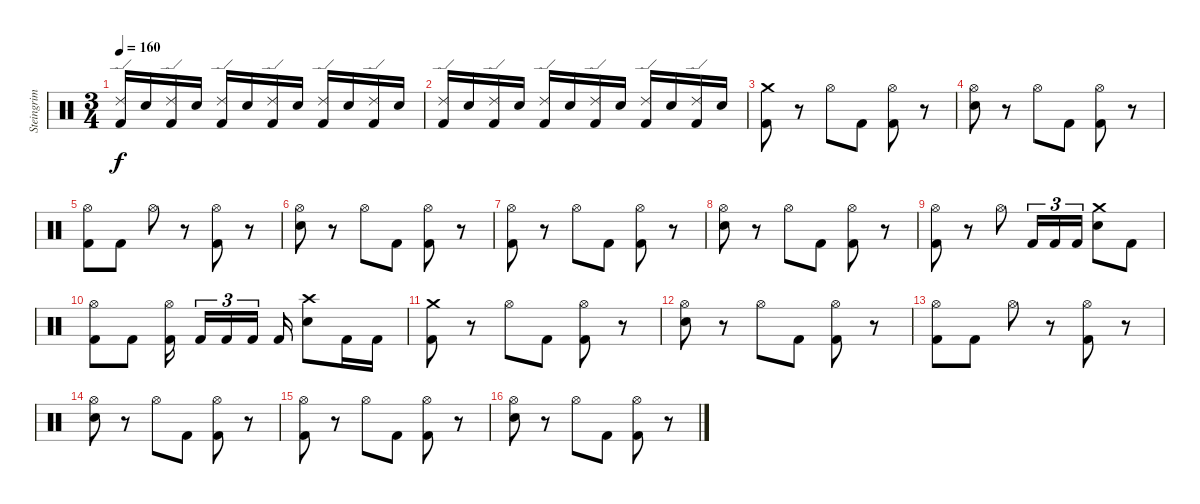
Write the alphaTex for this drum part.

\track ("Steingrim Trommur" "Steingrim ") {instrument percussion}
\staff {score}
\articulation defaults
\ts (3 4)
\tempo 160
\clef neutral
\ks c
("Ride (edge) 2" "Kick (hit) 2").16{dy f} "Electric Snare (hit)".16 ("Ride (edge) 2" "Kick (hit) 2").16 "Electric Snare (hit)".16 ("Ride (edge) 2" "Kick (hit) 2").16 "Electric Snare (hit)".16 ("Ride (edge) 2" "Kick (hit) 2").16 "Electric Snare (hit)".16 ("Ride (edge) 2" "Kick (hit) 2").16 "Electric Snare (hit)".16 ("Ride (edge) 2" "Kick (hit) 2").16 "Electric Snare (hit)".16 |
("Ride (edge) 2" "Kick (hit) 2").16 "Electric Snare (hit)".16 ("Ride (edge) 2" "Kick (hit) 2").16 "Electric Snare (hit)".16 ("Ride (edge) 2" "Kick (hit) 2").16 "Electric Snare (hit)".16 ("Ride (edge) 2" "Kick (hit) 2").16 "Electric Snare (hit)".16 ("Ride (edge) 2" "Kick (hit) 2").16 "Electric Snare (hit)".16 ("Ride (edge) 2" "Kick (hit) 2").16 "Electric Snare (hit)".16 |
("Crash medium (hit)" "Kick (hit) 2").8 r.8 "Hi-Hat (open)".8 "Kick (hit) 2".8 ("Hi-Hat (open)" "Kick (hit) 2").8 r.8 |
("Hi-Hat (open)" "Electric Snare (hit)").8 r.8 "Hi-Hat (open)".8 "Kick (hit) 2".8 ("Hi-Hat (open)" "Kick (hit) 2").8 r.8 |
("Hi-Hat (open)" "Kick (hit) 2").8 "Kick (hit) 2".8 "Hi-Hat (open)".8 r.8 ("Hi-Hat (open)" "Kick (hit) 2").8 r.8 |
("Hi-Hat (open)" "Electric Snare (hit)").8 r.8 "Hi-Hat (open)".8 "Kick (hit) 2".8 ("Hi-Hat (open)" "Kick (hit) 2").8 r.8 |
("Hi-Hat (open)" "Kick (hit) 2").8 r.8 "Hi-Hat (open)".8 "Kick (hit) 2".8 ("Hi-Hat (open)" "Kick (hit) 2").8 r.8 |
("Hi-Hat (open)" "Electric Snare (hit)").8 r.8 "Hi-Hat (open)".8 "Kick (hit) 2".8 ("Hi-Hat (open)" "Kick (hit) 2").8 r.8 |
("Hi-Hat (open)" "Kick (hit) 2").8 r.8 "Hi-Hat (open)".8 "Kick (hit) 2".16{tu (3 2)} "Kick (hit) 2".16{tu (3 2)} "Kick (hit) 2".16{tu (3 2)} ("Crash medium (hit)" "Electric Snare (hit)").8 "Kick (hit) 2".8 |
("Hi-Hat (open)" "Kick (hit) 2").8 "Kick (hit) 2".8 ("Hi-Hat (open)" "Kick (hit) 2").16 "Kick (hit) 2".16{tu (3 2)} "Kick (hit) 2".16{tu (3 2)} "Kick (hit) 2".16{tu (3 2)} "Kick (hit) 2".16 ("Crash high (hit)" "Electric Snare (hit)").8 "Kick (hit) 2".16 "Kick (hit) 2".16 |
("Crash medium (hit)" "Kick (hit) 2").8 r.8 "Hi-Hat (open)".8 "Kick (hit) 2".8 ("Hi-Hat (open)" "Kick (hit) 2").8 r.8 |
("Hi-Hat (open)" "Electric Snare (hit)").8 r.8 "Hi-Hat (open)".8 "Kick (hit) 2".8 ("Hi-Hat (open)" "Kick (hit) 2").8 r.8 |
("Hi-Hat (open)" "Kick (hit) 2").8 "Kick (hit) 2".8 "Hi-Hat (open)".8 r.8 ("Hi-Hat (open)" "Kick (hit) 2").8 r.8 |
("Hi-Hat (open)" "Electric Snare (hit)").8 r.8 "Hi-Hat (open)".8 "Kick (hit) 2".8 ("Hi-Hat (open)" "Kick (hit) 2").8 r.8 |
("Hi-Hat (open)" "Kick (hit) 2").8 r.8 "Hi-Hat (open)".8 "Kick (hit) 2".8 ("Hi-Hat (open)" "Kick (hit) 2").8 r.8 |
("Hi-Hat (open)" "Electric Snare (hit)").8 r.8 "Hi-Hat (open)".8 "Kick (hit) 2".8 ("Hi-Hat (open)" "Kick (hit) 2").8 r.8
